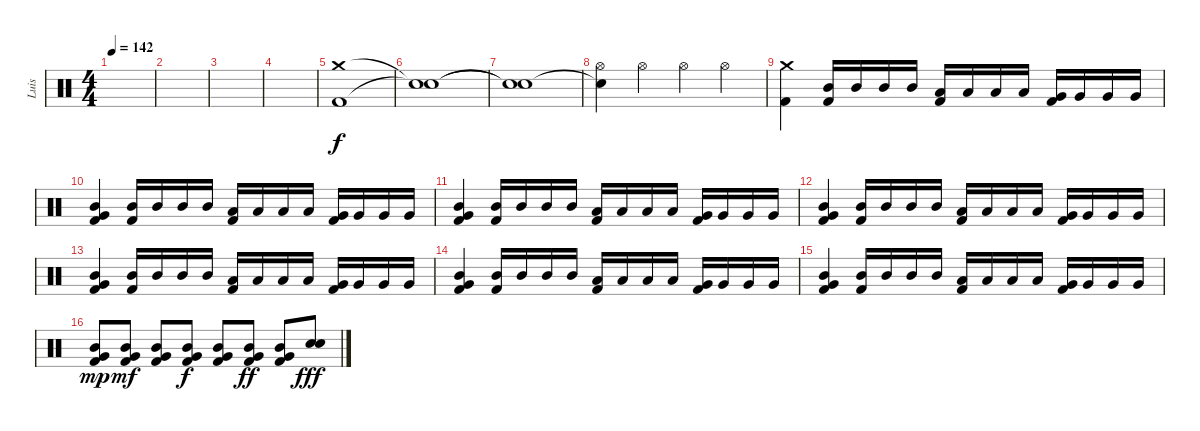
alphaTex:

\track ("Luis" "Luis") {instrument percussion}
\staff {score}
\articulation defaults
\ts (4 4)
\tempo 142
\clef neutral
\ks c
|
|
|
|
("Crash medium (hit)" "Kick (hit) 2").1 |
("Snare (hit)"{t} "Snare (hit)"{t}).1 |
("Snare (hit)"{t} "Snare (hit)"{t}).1 |
("Snare (hit)"{t} "Hi-Hat (open)").4 "Hi-Hat (open)".4 "Hi-Hat (open)".4 "Hi-Hat (open)".4 |
("Crash medium (hit)" "Kick (hit) 2").4 ("Mid Tom (hit)" "Kick (hit) 2").16 "Mid Tom (hit)".16 "Mid Tom (hit)".16 "Mid Tom (hit)".16 ("Low Tom (hit)" "Kick (hit) 2").16 "Low Tom (hit)".16 "Low Tom (hit)".16 "Low Tom (hit)".16 ("Very Low Tom (hit)" "Kick (hit) 2").16 "Very Low Tom (hit)".16 "Very Low Tom (hit)".16 "Very Low Tom (hit)".16 |
("Mid Tom (hit)" "Very Low Tom (hit)" "Kick (hit) 2").4 ("Mid Tom (hit)" "Kick (hit) 2").16 "Mid Tom (hit)".16 "Mid Tom (hit)".16 "Mid Tom (hit)".16 ("Low Tom (hit)" "Kick (hit) 2").16 "Low Tom (hit)".16 "Low Tom (hit)".16 "Low Tom (hit)".16 ("Very Low Tom (hit)" "Kick (hit) 2").16 "Very Low Tom (hit)".16 "Very Low Tom (hit)".16 "Very Low Tom (hit)".16 |
("Mid Tom (hit)" "Very Low Tom (hit)" "Kick (hit) 2").4 ("Mid Tom (hit)" "Kick (hit) 2").16 "Mid Tom (hit)".16 "Mid Tom (hit)".16 "Mid Tom (hit)".16 ("Low Tom (hit)" "Kick (hit) 2").16 "Low Tom (hit)".16 "Low Tom (hit)".16 "Low Tom (hit)".16 ("Very Low Tom (hit)" "Kick (hit) 2").16 "Very Low Tom (hit)".16 "Very Low Tom (hit)".16 "Very Low Tom (hit)".16 |
("Mid Tom (hit)" "Very Low Tom (hit)" "Kick (hit) 2").4 ("Mid Tom (hit)" "Kick (hit) 2").16 "Mid Tom (hit)".16 "Mid Tom (hit)".16 "Mid Tom (hit)".16 ("Low Tom (hit)" "Kick (hit) 2").16 "Low Tom (hit)".16 "Low Tom (hit)".16 "Low Tom (hit)".16 ("Very Low Tom (hit)" "Kick (hit) 2").16 "Very Low Tom (hit)".16 "Very Low Tom (hit)".16 "Very Low Tom (hit)".16 |
("Mid Tom (hit)" "Very Low Tom (hit)" "Kick (hit) 2").4 ("Mid Tom (hit)" "Kick (hit) 2").16 "Mid Tom (hit)".16 "Mid Tom (hit)".16 "Mid Tom (hit)".16 ("Low Tom (hit)" "Kick (hit) 2").16 "Low Tom (hit)".16 "Low Tom (hit)".16 "Low Tom (hit)".16 ("Very Low Tom (hit)" "Kick (hit) 2").16 "Very Low Tom (hit)".16 "Very Low Tom (hit)".16 "Very Low Tom (hit)".16 |
("Mid Tom (hit)" "Very Low Tom (hit)" "Kick (hit) 2").4 ("Mid Tom (hit)" "Kick (hit) 2").16 "Mid Tom (hit)".16 "Mid Tom (hit)".16 "Mid Tom (hit)".16 ("Low Tom (hit)" "Kick (hit) 2").16 "Low Tom (hit)".16 "Low Tom (hit)".16 "Low Tom (hit)".16 ("Very Low Tom (hit)" "Kick (hit) 2").16 "Very Low Tom (hit)".16 "Very Low Tom (hit)".16 "Very Low Tom (hit)".16 |
("Mid Tom (hit)" "Very Low Tom (hit)" "Kick (hit) 2").4 ("Mid Tom (hit)" "Kick (hit) 2").16 "Mid Tom (hit)".16 "Mid Tom (hit)".16 "Mid Tom (hit)".16 ("Low Tom (hit)" "Kick (hit) 2").16 "Low Tom (hit)".16 "Low Tom (hit)".16 "Low Tom (hit)".16 ("Very Low Tom (hit)" "Kick (hit) 2").16 "Very Low Tom (hit)".16 "Very Low Tom (hit)".16 "Very Low Tom (hit)".16 |
("Mid Tom (hit)" "Very Low Tom (hit)" "Kick (hit) 2").8{dy mp} ("Mid Tom (hit)" "Very Low Tom (hit)" "Kick (hit) 2").8{dy mf} ("Mid Tom (hit)" "Very Low Tom (hit)" "Kick (hit) 2").8 ("Mid Tom (hit)" "Very Low Tom (hit)" "Kick (hit) 2").8{dy f} ("Mid Tom (hit)" "Very Low Tom (hit)" "Kick (hit) 2").8 ("Mid Tom (hit)" "Very Low Tom (hit)" "Kick (hit) 2").8{dy ff} ("Mid Tom (hit)" "Very Low Tom (hit)" "Kick (hit) 2").8 ("Electric Snare (hit)" "Electric Snare (hit)").8{dy fff}
